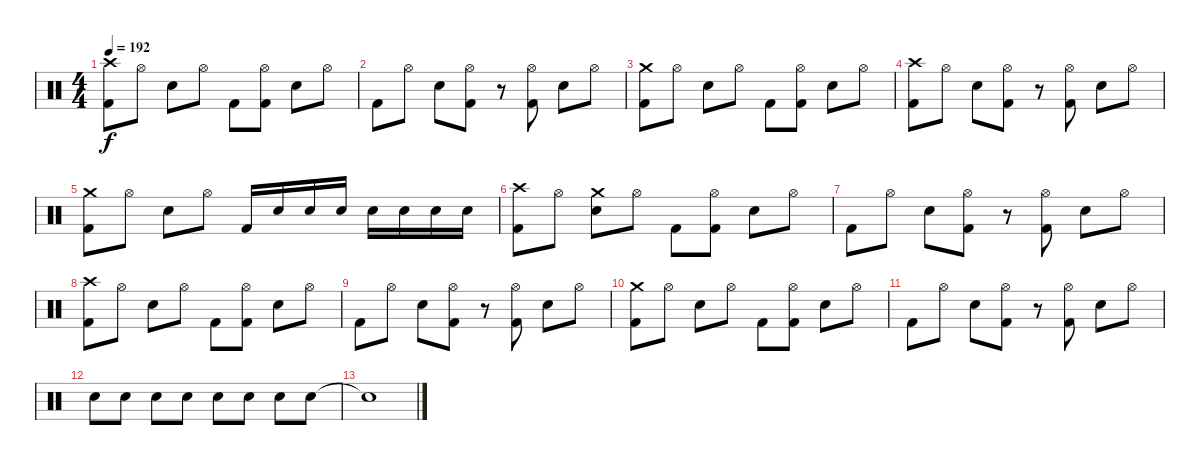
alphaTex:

\track "" {instrument percussion}
\staff {score}
\articulation defaults
\ts (4 4)
\tempo 192
\clef neutral
\ks c
("Crash high (hit)" "Kick (hit) 2").8{dy f} "Hi-Hat (open)".8 "Snare (hit) 2".8 "Hi-Hat (open)".8 "Kick (hit) 2".8 ("Hi-Hat (open)" "Kick (hit) 2").8 "Snare (hit) 2".8 "Hi-Hat (open)".8 |
"Kick (hit) 2".8 "Hi-Hat (open)".8 "Snare (hit) 2".8 ("Hi-Hat (open)" "Kick (hit) 2").8 r.8 ("Hi-Hat (open)" "Kick (hit) 2").8 "Snare (hit) 2".8 "Hi-Hat (open)".8 |
("Crash medium (hit)" "Kick (hit) 2").8 "Hi-Hat (open)".8 "Snare (hit) 2".8 "Hi-Hat (open)".8 "Kick (hit) 2".8 ("Hi-Hat (open)" "Kick (hit) 2").8 "Snare (hit) 2".8 "Hi-Hat (open)".8 |
("Crash high (hit)" "Kick (hit) 2").8 "Hi-Hat (open)".8 "Snare (hit) 2".8 ("Hi-Hat (open)" "Kick (hit) 2").8 r.8 ("Hi-Hat (open)" "Kick (hit) 2").8 "Snare (hit) 2".8 "Hi-Hat (open)".8 |
("Crash medium (hit)" "Kick (hit) 2").8 "Hi-Hat (open)".8 "Snare (hit) 2".8 "Hi-Hat (open)".8 "Kick (hit) 2".16 "Snare (hit) 2".16 "Snare (hit) 2".16 "Snare (hit) 2".16 "Snare (hit) 2".16 "Snare (hit) 2".16 "Snare (hit) 2".16 "Snare (hit) 2".16 |
("Crash high (hit)" "Kick (hit) 2").8 "Hi-Hat (open)".8 ("Crash medium (hit)" "Snare (hit) 2").8 "Hi-Hat (open)".8 "Kick (hit) 2".8 ("Hi-Hat (open)" "Kick (hit) 2").8 "Snare (hit) 2".8 "Hi-Hat (open)".8 |
"Kick (hit) 2".8 "Hi-Hat (open)".8 "Snare (hit) 2".8 ("Hi-Hat (open)" "Kick (hit) 2").8 r.8 ("Hi-Hat (open)" "Kick (hit) 2").8 "Snare (hit) 2".8 "Hi-Hat (open)".8 |
("Crash high (hit)" "Kick (hit) 2").8 "Hi-Hat (open)".8 "Snare (hit) 2".8 "Hi-Hat (open)".8 "Kick (hit) 2".8 ("Hi-Hat (open)" "Kick (hit) 2").8 "Snare (hit) 2".8 "Hi-Hat (open)".8 |
"Kick (hit) 2".8 "Hi-Hat (open)".8 "Snare (hit) 2".8 ("Hi-Hat (open)" "Kick (hit) 2").8 r.8 ("Hi-Hat (open)" "Kick (hit) 2").8 "Snare (hit) 2".8 "Hi-Hat (open)".8 |
("Crash medium (hit)" "Kick (hit) 2").8 "Hi-Hat (open)".8 "Snare (hit) 2".8 "Hi-Hat (open)".8 "Kick (hit) 2".8 ("Hi-Hat (open)" "Kick (hit) 2").8 "Snare (hit) 2".8 "Hi-Hat (open)".8 |
"Kick (hit) 2".8 "Hi-Hat (open)".8 "Snare (hit) 2".8 ("Hi-Hat (open)" "Kick (hit) 2").8 r.8 ("Hi-Hat (open)" "Kick (hit) 2").8 "Snare (hit) 2".8 "Hi-Hat (open)".8 |
"Snare (hit) 2".8 "Snare (hit) 2".8 "Snare (hit) 2".8 "Snare (hit) 2".8 "Snare (hit) 2".8 "Snare (hit) 2".8 "Snare (hit) 2".8 "Snare (hit) 2".8 |
"Snare (hit)"{t}.1
